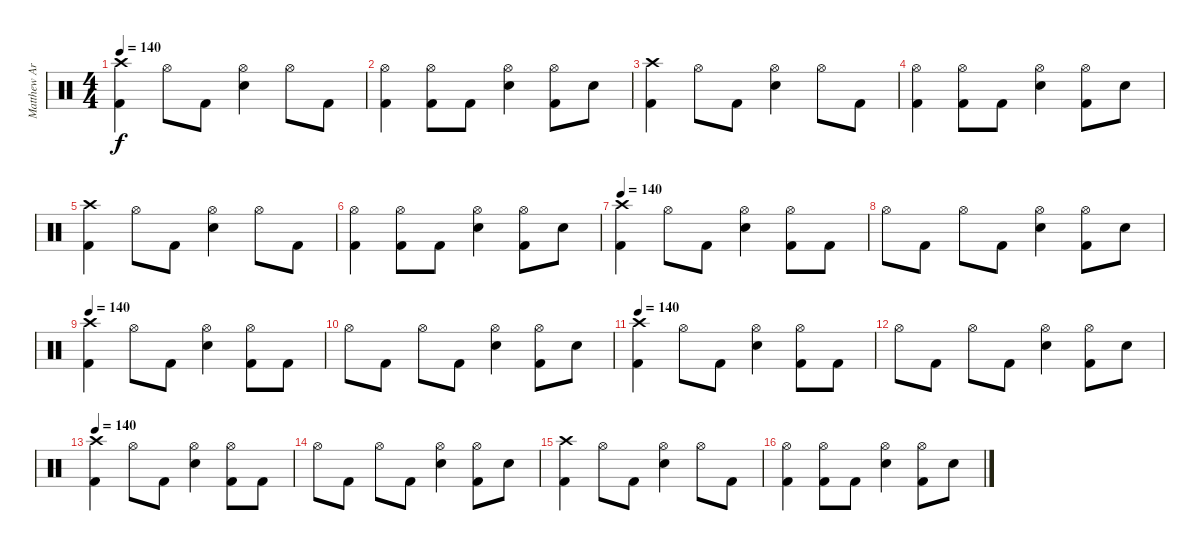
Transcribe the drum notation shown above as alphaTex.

\track ("Matthew Archer" "Matthew Ar") {instrument percussion}
\staff {score}
\articulation defaults
\ts (4 4)
\tempo 140
\clef neutral
\ks c
("Kick (hit) 2" "Crash high (hit)").4{dy f} "Hi-Hat (open)".8 "Kick (hit) 2".8 ("Hi-Hat (open)" "Electric Snare (hit)").4 "Hi-Hat (open)".8 "Kick (hit) 2".8 |
("Hi-Hat (open)" "Kick (hit) 2").4 ("Hi-Hat (open)" "Kick (hit) 2").8 "Kick (hit) 2".8 ("Hi-Hat (open)" "Electric Snare (hit)").4 ("Hi-Hat (open)" "Kick (hit) 2").8 "Electric Snare (hit)".8 |
("Kick (hit) 2" "Crash high (hit)").4 "Hi-Hat (open)".8 "Kick (hit) 2".8 ("Hi-Hat (open)" "Electric Snare (hit)").4 "Hi-Hat (open)".8 "Kick (hit) 2".8 |
("Hi-Hat (open)" "Kick (hit) 2").4 ("Hi-Hat (open)" "Kick (hit) 2").8 "Kick (hit) 2".8 ("Hi-Hat (open)" "Electric Snare (hit)").4 ("Hi-Hat (open)" "Kick (hit) 2").8 "Electric Snare (hit)".8 |
("Kick (hit) 2" "Crash high (hit)").4 "Hi-Hat (open)".8 "Kick (hit) 2".8 ("Hi-Hat (open)" "Electric Snare (hit)").4 "Hi-Hat (open)".8 "Kick (hit) 2".8 |
("Hi-Hat (open)" "Kick (hit) 2").4 ("Hi-Hat (open)" "Kick (hit) 2").8 "Kick (hit) 2".8 ("Hi-Hat (open)" "Electric Snare (hit)").4 ("Hi-Hat (open)" "Kick (hit) 2").8 "Electric Snare (hit)".8 |
\tempo 140
("Crash high (hit)" "Kick (hit) 2").4 "Hi-Hat (open)".8 "Kick (hit) 2".8 ("Hi-Hat (open)" "Electric Snare (hit)").4 ("Hi-Hat (open)" "Kick (hit) 2").8 "Kick (hit) 2".8 |
"Hi-Hat (open)".8 "Kick (hit) 2".8 "Hi-Hat (open)".8 "Kick (hit) 2".8 ("Hi-Hat (open)" "Electric Snare (hit)").4 ("Hi-Hat (open)" "Kick (hit) 2").8 "Electric Snare (hit)".8 |
\tempo 140
("Crash high (hit)" "Kick (hit) 2").4 "Hi-Hat (open)".8 "Kick (hit) 2".8 ("Hi-Hat (open)" "Electric Snare (hit)").4 ("Hi-Hat (open)" "Kick (hit) 2").8 "Kick (hit) 2".8 |
"Hi-Hat (open)".8 "Kick (hit) 2".8 "Hi-Hat (open)".8 "Kick (hit) 2".8 ("Hi-Hat (open)" "Electric Snare (hit)").4 ("Hi-Hat (open)" "Kick (hit) 2").8 "Electric Snare (hit)".8 |
\tempo 140
("Crash high (hit)" "Kick (hit) 2").4 "Hi-Hat (open)".8 "Kick (hit) 2".8 ("Hi-Hat (open)" "Electric Snare (hit)").4 ("Hi-Hat (open)" "Kick (hit) 2").8 "Kick (hit) 2".8 |
"Hi-Hat (open)".8 "Kick (hit) 2".8 "Hi-Hat (open)".8 "Kick (hit) 2".8 ("Hi-Hat (open)" "Electric Snare (hit)").4 ("Hi-Hat (open)" "Kick (hit) 2").8 "Electric Snare (hit)".8 |
\tempo 140
("Crash high (hit)" "Kick (hit) 2").4 "Hi-Hat (open)".8 "Kick (hit) 2".8 ("Hi-Hat (open)" "Electric Snare (hit)").4 ("Hi-Hat (open)" "Kick (hit) 2").8 "Kick (hit) 2".8 |
"Hi-Hat (open)".8 "Kick (hit) 2".8 "Hi-Hat (open)".8 "Kick (hit) 2".8 ("Hi-Hat (open)" "Electric Snare (hit)").4 ("Hi-Hat (open)" "Kick (hit) 2").8 "Electric Snare (hit)".8 |
("Kick (hit) 2" "Crash high (hit)").4 "Hi-Hat (open)".8 "Kick (hit) 2".8 ("Hi-Hat (open)" "Electric Snare (hit)").4 "Hi-Hat (open)".8 "Kick (hit) 2".8 |
("Hi-Hat (open)" "Kick (hit) 2").4 ("Hi-Hat (open)" "Kick (hit) 2").8 "Kick (hit) 2".8 ("Hi-Hat (open)" "Electric Snare (hit)").4 ("Hi-Hat (open)" "Kick (hit) 2").8 "Electric Snare (hit)".8
